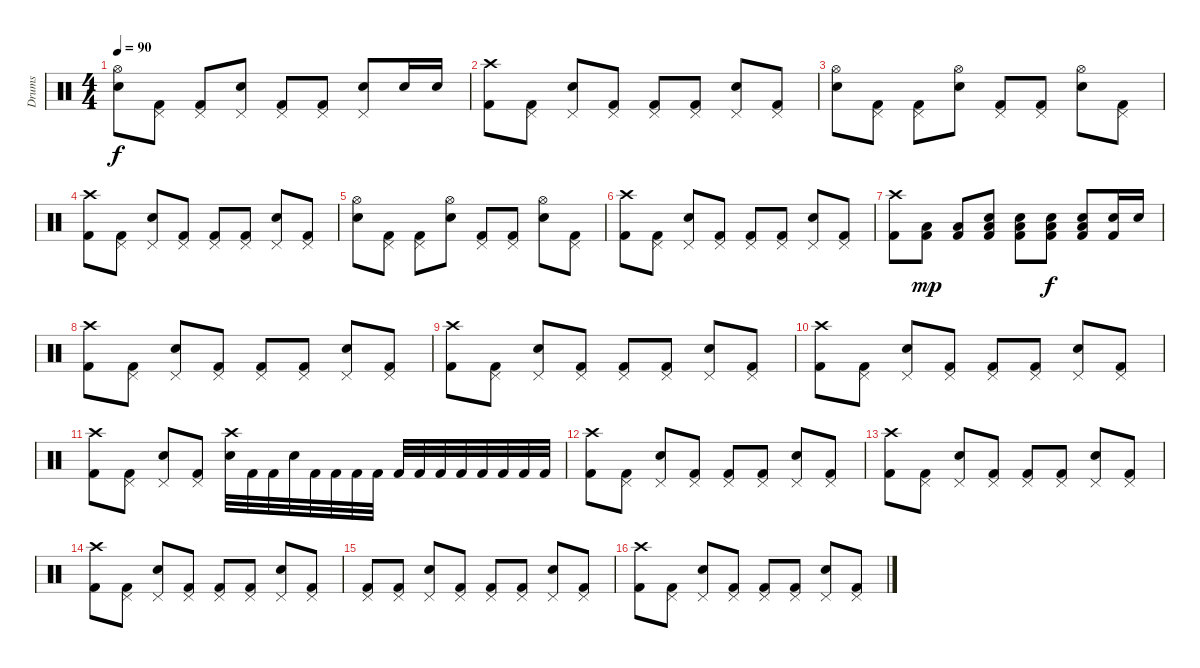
\track ("Drums" "Drums") {instrument percussion}
\staff {score}
\articulation defaults
\ts (4 4)
\tempo 90
\clef neutral
\ks c
("Hi-Hat (open)" "Snare (hit) 2").8{dy f} ("Pedal Hi-Hat (hit)" "Kick (hit) 2").8 ("Pedal Hi-Hat (hit)" "Kick (hit) 2").8 ("Pedal Hi-Hat (hit)" "Snare (hit) 2").8 ("Pedal Hi-Hat (hit)" "Kick (hit) 2").8 ("Pedal Hi-Hat (hit)" "Kick (hit) 2").8 ("Pedal Hi-Hat (hit)" "Snare (hit) 2").8 "Snare (hit) 2".16 "Snare (hit) 2".16 |
("Crash high (hit)" "Kick (hit) 2").8 ("Pedal Hi-Hat (hit)" "Kick (hit) 2").8 ("Pedal Hi-Hat (hit)" "Snare (hit) 2").8 ("Pedal Hi-Hat (hit)" "Kick (hit) 2").8 ("Pedal Hi-Hat (hit)" "Kick (hit) 2").8 ("Pedal Hi-Hat (hit)" "Kick (hit) 2").8 ("Pedal Hi-Hat (hit)" "Snare (hit) 2").8 ("Pedal Hi-Hat (hit)" "Kick (hit) 2").8 |
("Hi-Hat (open)" "Snare (hit) 2").8 ("Pedal Hi-Hat (hit)" "Kick (hit) 2").8 ("Pedal Hi-Hat (hit)" "Kick (hit) 2").8 ("Hi-Hat (open)" "Snare (hit) 2").8 ("Pedal Hi-Hat (hit)" "Kick (hit) 2").8 ("Pedal Hi-Hat (hit)" "Kick (hit) 2").8 ("Hi-Hat (open)" "Snare (hit) 2").8 ("Pedal Hi-Hat (hit)" "Kick (hit) 2").8 |
("Crash high (hit)" "Kick (hit) 2").8 ("Pedal Hi-Hat (hit)" "Kick (hit) 2").8 ("Pedal Hi-Hat (hit)" "Snare (hit) 2").8 ("Pedal Hi-Hat (hit)" "Kick (hit) 2").8 ("Pedal Hi-Hat (hit)" "Kick (hit) 2").8 ("Pedal Hi-Hat (hit)" "Kick (hit) 2").8 ("Pedal Hi-Hat (hit)" "Snare (hit) 2").8 ("Pedal Hi-Hat (hit)" "Kick (hit) 2").8 |
("Hi-Hat (open)" "Snare (hit) 2").8 ("Pedal Hi-Hat (hit)" "Kick (hit) 2").8 ("Pedal Hi-Hat (hit)" "Kick (hit) 2").8 ("Hi-Hat (open)" "Snare (hit) 2").8 ("Pedal Hi-Hat (hit)" "Kick (hit) 2").8 ("Pedal Hi-Hat (hit)" "Kick (hit) 2").8 ("Hi-Hat (open)" "Snare (hit) 2").8 ("Pedal Hi-Hat (hit)" "Kick (hit) 2").8 |
("Crash high (hit)" "Kick (hit) 2").8 ("Pedal Hi-Hat (hit)" "Kick (hit) 2").8 ("Pedal Hi-Hat (hit)" "Snare (hit) 2").8 ("Pedal Hi-Hat (hit)" "Kick (hit) 2").8 ("Pedal Hi-Hat (hit)" "Kick (hit) 2").8 ("Pedal Hi-Hat (hit)" "Kick (hit) 2").8 ("Pedal Hi-Hat (hit)" "Snare (hit) 2").8 ("Pedal Hi-Hat (hit)" "Kick (hit) 2").8 |
("Crash high (hit)" "Kick (hit) 2").8 ("Low Floor Tom (hit)" "Kick (hit) 2").8{dy mp} ("Low Floor Tom (hit)" "Kick (hit) 2").8 ("Snare (hit) 2" "Low Floor Tom (hit)" "Kick (hit) 2").8 ("Snare (hit) 2" "Low Floor Tom (hit)" "Kick (hit) 2").8 ("Snare (hit) 2" "Low Floor Tom (hit)" "Kick (hit) 2").8{dy f} ("Snare (hit) 2" "Low Floor Tom (hit)" "Kick (hit) 2").8 ("Snare (hit) 2" "Kick (hit) 2").16 "Snare (hit) 2".16 |
("Crash high (hit)" "Kick (hit) 2").8 ("Pedal Hi-Hat (hit)" "Kick (hit) 2").8 ("Pedal Hi-Hat (hit)" "Snare (hit) 2").8 ("Pedal Hi-Hat (hit)" "Kick (hit) 2").8 ("Pedal Hi-Hat (hit)" "Kick (hit) 2").8 ("Pedal Hi-Hat (hit)" "Kick (hit) 2").8 ("Pedal Hi-Hat (hit)" "Snare (hit) 2").8 ("Pedal Hi-Hat (hit)" "Kick (hit) 2").8 |
("Crash high (hit)" "Kick (hit) 2").8 ("Pedal Hi-Hat (hit)" "Kick (hit) 2").8 ("Pedal Hi-Hat (hit)" "Snare (hit) 2").8 ("Pedal Hi-Hat (hit)" "Kick (hit) 2").8 ("Pedal Hi-Hat (hit)" "Kick (hit) 2").8 ("Pedal Hi-Hat (hit)" "Kick (hit) 2").8 ("Pedal Hi-Hat (hit)" "Snare (hit) 2").8 ("Pedal Hi-Hat (hit)" "Kick (hit) 2").8 |
("Crash high (hit)" "Kick (hit) 2").8 ("Pedal Hi-Hat (hit)" "Kick (hit) 2").8 ("Pedal Hi-Hat (hit)" "Snare (hit) 2").8 ("Pedal Hi-Hat (hit)" "Kick (hit) 2").8 ("Pedal Hi-Hat (hit)" "Kick (hit) 2").8 ("Pedal Hi-Hat (hit)" "Kick (hit) 2").8 ("Pedal Hi-Hat (hit)" "Snare (hit) 2").8 ("Pedal Hi-Hat (hit)" "Kick (hit) 2").8 |
("Crash high (hit)" "Kick (hit) 2").8 ("Pedal Hi-Hat (hit)" "Kick (hit) 2").8 ("Pedal Hi-Hat (hit)" "Snare (hit) 2").8 ("Pedal Hi-Hat (hit)" "Kick (hit) 2").8 ("Crash high (hit)" "Snare (hit) 2").32 "Kick (hit) 2".32 "Kick (hit) 2".32 "Snare (hit) 2".32 "Kick (hit) 2".32 "Kick (hit) 2".32 "Kick (hit) 2".32 "Kick (hit) 2".32 "Kick (hit) 2".32 "Kick (hit) 2".32 "Kick (hit) 2".32 "Kick (hit) 2".32 "Kick (hit) 2".32 "Kick (hit) 2".32 "Kick (hit) 2".32 "Kick (hit) 2".32 |
("Crash high (hit)" "Kick (hit) 2").8 ("Pedal Hi-Hat (hit)" "Kick (hit) 2").8 ("Pedal Hi-Hat (hit)" "Snare (hit) 2").8 ("Pedal Hi-Hat (hit)" "Kick (hit) 2").8 ("Pedal Hi-Hat (hit)" "Kick (hit) 2").8 ("Pedal Hi-Hat (hit)" "Kick (hit) 2").8 ("Pedal Hi-Hat (hit)" "Snare (hit) 2").8 ("Pedal Hi-Hat (hit)" "Kick (hit) 2").8 |
("Crash high (hit)" "Kick (hit) 2").8 ("Pedal Hi-Hat (hit)" "Kick (hit) 2").8 ("Pedal Hi-Hat (hit)" "Snare (hit) 2").8 ("Pedal Hi-Hat (hit)" "Kick (hit) 2").8 ("Pedal Hi-Hat (hit)" "Kick (hit) 2").8 ("Pedal Hi-Hat (hit)" "Kick (hit) 2").8 ("Pedal Hi-Hat (hit)" "Snare (hit) 2").8 ("Pedal Hi-Hat (hit)" "Kick (hit) 2").8 |
("Crash high (hit)" "Kick (hit) 2").8 ("Pedal Hi-Hat (hit)" "Kick (hit) 2").8 ("Pedal Hi-Hat (hit)" "Snare (hit) 2").8 ("Pedal Hi-Hat (hit)" "Kick (hit) 2").8 ("Pedal Hi-Hat (hit)" "Kick (hit) 2").8 ("Pedal Hi-Hat (hit)" "Kick (hit) 2").8 ("Pedal Hi-Hat (hit)" "Snare (hit) 2").8 ("Pedal Hi-Hat (hit)" "Kick (hit) 2").8 |
("Pedal Hi-Hat (hit)" "Kick (hit) 2").8 ("Pedal Hi-Hat (hit)" "Kick (hit) 2").8 ("Pedal Hi-Hat (hit)" "Snare (hit) 2").8 ("Pedal Hi-Hat (hit)" "Kick (hit) 2").8 ("Pedal Hi-Hat (hit)" "Kick (hit) 2").8 ("Pedal Hi-Hat (hit)" "Kick (hit) 2").8 ("Pedal Hi-Hat (hit)" "Snare (hit) 2").8 ("Pedal Hi-Hat (hit)" "Kick (hit) 2").8 |
("Crash high (hit)" "Kick (hit) 2").8 ("Pedal Hi-Hat (hit)" "Kick (hit) 2").8 ("Pedal Hi-Hat (hit)" "Snare (hit) 2").8 ("Pedal Hi-Hat (hit)" "Kick (hit) 2").8 ("Pedal Hi-Hat (hit)" "Kick (hit) 2").8 ("Pedal Hi-Hat (hit)" "Kick (hit) 2").8 ("Pedal Hi-Hat (hit)" "Snare (hit) 2").8 ("Pedal Hi-Hat (hit)" "Kick (hit) 2").8
